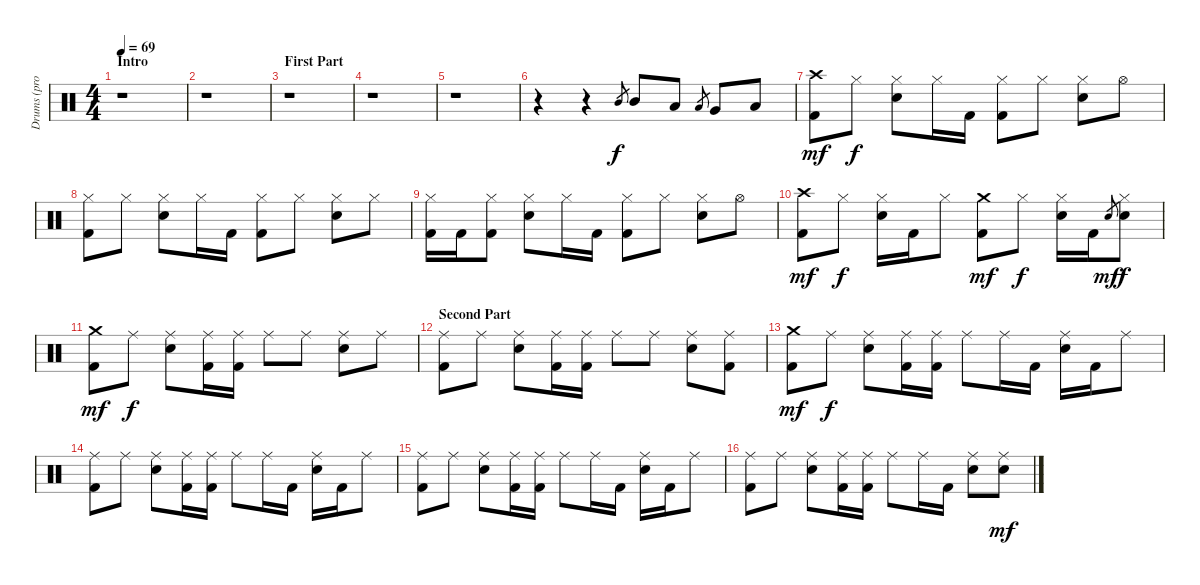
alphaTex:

\track ("Drums (proposal JZ)" "Drums (pro") {instrument percussion}
\staff {score}
\articulation defaults
\ts (4 4)
\section ("" "Intro")
\tempo 69
\clef neutral
\ks c
r.1{dy f} |
r.1 |
\section ("" "First Part")
r.1 |
r.1 |
r.1 |
r.4 r.4 "Mid Tom (hit)".8{gr} "Mid Tom (hit)".8 "Low Tom (hit)".8 "Low Tom (hit)".8{gr} "Very Low Tom (hit)".8 "Low Floor Tom (hit)".8 |
("Crash high (hit)" "Kick (hit) 2").8{dy mf} "Hi-Hat (closed)".8{dy f} ("Hi-Hat (closed)" "Electric Snare (hit)").8 "Hi-Hat (closed)".16 "Kick (hit) 2".16 ("Hi-Hat (closed)" "Kick (hit) 2").8 "Hi-Hat (closed)".8 ("Hi-Hat (closed)" "Electric Snare (hit)").8 "Hi-Hat (open)".8 |
("Hi-Hat (closed)" "Kick (hit) 2").8 "Hi-Hat (closed)".8 ("Hi-Hat (closed)" "Electric Snare (hit)").8 "Hi-Hat (closed)".16 "Kick (hit) 2".16 ("Hi-Hat (closed)" "Kick (hit) 2").8 "Hi-Hat (closed)".8 ("Hi-Hat (closed)" "Electric Snare (hit)").8 "Hi-Hat (closed)".8 |
("Hi-Hat (closed)" "Kick (hit) 2").16 "Kick (hit) 2".16 ("Hi-Hat (closed)" "Kick (hit) 2").8 ("Hi-Hat (closed)" "Electric Snare (hit)").8 "Hi-Hat (closed)".16 "Kick (hit) 2".16 ("Hi-Hat (closed)" "Kick (hit) 2").8 "Hi-Hat (closed)".8 ("Hi-Hat (closed)" "Electric Snare (hit)").8 "Hi-Hat (open)".8 |
("Crash high (hit)" "Kick (hit) 2").8{dy mf} "Hi-Hat (closed)".8{dy f} ("Hi-Hat (closed)" "Electric Snare (hit)").16 "Kick (hit) 2".16 "Hi-Hat (closed)".8 ("Crash medium (hit)" "Kick (hit) 2").8{dy mf} "Hi-Hat (closed)".8{dy f} ("Hi-Hat (closed)" "Electric Snare (hit)").16 "Kick (hit) 2".16 "Electric Snare (hit)".8{gr dy mf} ("Hi-Hat (closed)" "Electric Snare (hit)").8{dy f} |
("Crash medium (hit)" "Kick (hit) 2").8{dy mf} "Ride (middle)".8{dy f} ("Ride (middle)" "Electric Snare (hit)").8 ("Ride (middle)" "Kick (hit) 2").16 ("Ride (middle)" "Kick (hit) 2").16 "Ride (middle)".8 "Ride (middle)".8 ("Ride (middle)" "Electric Snare (hit)").8 "Ride (middle)".8 |
\section ("" "Second Part")
("Ride (middle)" "Kick (hit) 2").8 "Ride (middle)".8 ("Ride (middle)" "Electric Snare (hit)").8 ("Ride (middle)" "Kick (hit) 2").16 ("Ride (middle)" "Kick (hit) 2").16 "Ride (middle)".8 "Ride (middle)".8 ("Ride (middle)" "Electric Snare (hit)").8 ("Ride (middle)" "Kick (hit) 2").8 |
("Crash medium (hit)" "Kick (hit) 2").8{dy mf} "Ride (middle)".8{dy f} ("Ride (middle)" "Electric Snare (hit)").8 ("Ride (middle)" "Kick (hit) 2").16 ("Ride (middle)" "Kick (hit) 2").16 "Ride (middle)".8 "Ride (middle)".16 "Kick (hit) 2".16 ("Ride (middle)" "Electric Snare (hit)").16 "Kick (hit) 2".16 "Ride (middle)".8 |
("Ride (middle)" "Kick (hit) 2").8 "Ride (middle)".8 ("Ride (middle)" "Electric Snare (hit)").8 ("Ride (middle)" "Kick (hit) 2").16 ("Ride (middle)" "Kick (hit) 2").16 "Ride (middle)".8 "Ride (middle)".16 "Kick (hit) 2".16 ("Ride (middle)" "Electric Snare (hit)").16 "Kick (hit) 2".16 "Ride (middle)".8 |
("Ride (middle)" "Kick (hit) 2").8 "Ride (middle)".8 ("Ride (middle)" "Electric Snare (hit)").8 ("Ride (middle)" "Kick (hit) 2").16 ("Ride (middle)" "Kick (hit) 2").16 "Ride (middle)".8 "Ride (middle)".16 "Kick (hit) 2".16 ("Ride (middle)" "Electric Snare (hit)").16 "Kick (hit) 2".16 "Ride (middle)".8 |
("Ride (middle)" "Kick (hit) 2").8 "Ride (middle)".8 ("Ride (middle)" "Electric Snare (hit)").8 ("Ride (middle)" "Kick (hit) 2").16 ("Ride (middle)" "Kick (hit) 2").16 "Ride (middle)".8 "Ride (middle)".16 "Kick (hit) 2".16 ("Ride (middle)" "Electric Snare (hit)").8 ("Ride (middle)" "Electric Snare (hit)").8{dy mf}
